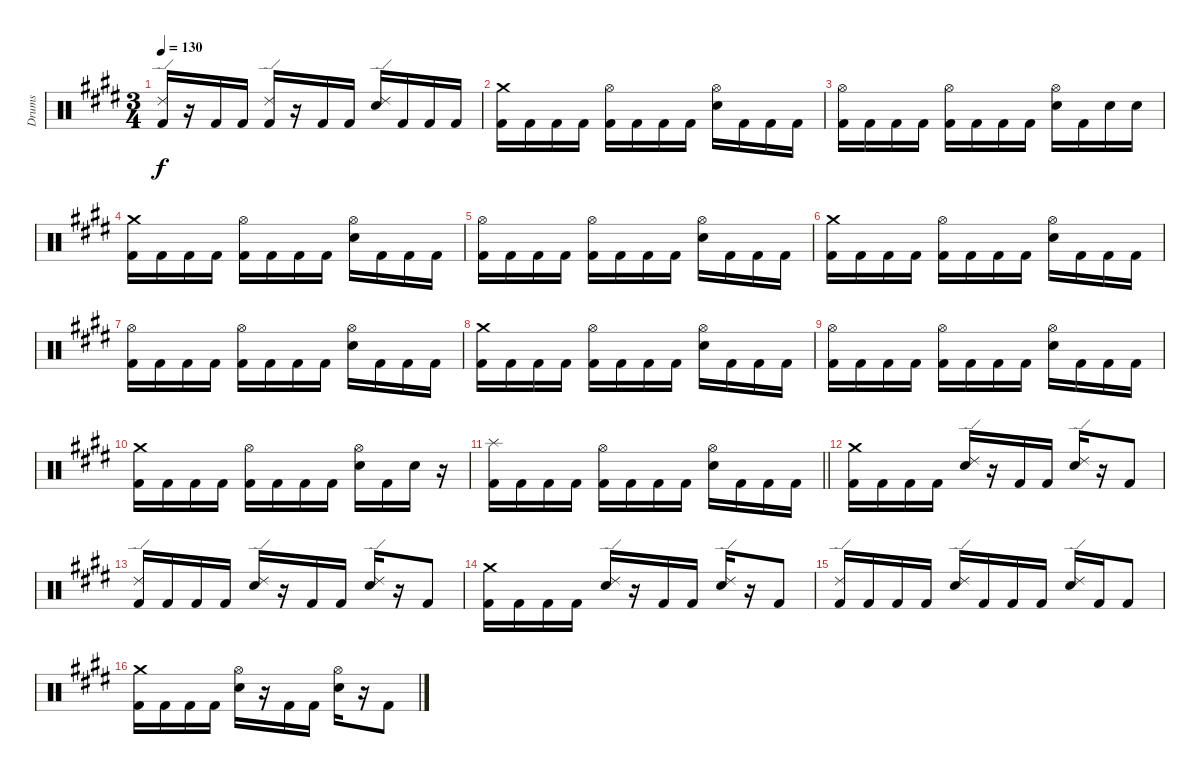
\track ("Drums" "Drums") {instrument percussion}
\staff {score}
\articulation defaults
\ts (3 4)
\tempo 130
\clef neutral
\ks e
("Kick (hit) 2" "Ride (edge) 2").16{dy f} r.16 "Kick (hit) 2".16 "Kick (hit) 2".16 ("Kick (hit) 2" "Ride (edge) 2").16 r.16 "Kick (hit) 2".16 "Kick (hit) 2".16 ("Electric Snare (hit)" "Ride (edge) 2").16 "Kick (hit) 2".16 "Kick (hit) 2".16 "Kick (hit) 2".16 |
("Kick (hit) 2" "Crash medium (hit)").16 "Kick (hit) 2".16 "Kick (hit) 2".16 "Kick (hit) 2".16 ("Kick (hit) 2" "Hi-Hat (open)").16 "Kick (hit) 2".16 "Kick (hit) 2".16 "Kick (hit) 2".16 ("Electric Snare (hit)" "Hi-Hat (open)").16 "Kick (hit) 2".16 "Kick (hit) 2".16 "Kick (hit) 2".16 |
("Kick (hit) 2" "Hi-Hat (open)").16 "Kick (hit) 2".16 "Kick (hit) 2".16 "Kick (hit) 2".16 ("Kick (hit) 2" "Hi-Hat (open)").16 "Kick (hit) 2".16 "Kick (hit) 2".16 "Kick (hit) 2".16 ("Electric Snare (hit)" "Hi-Hat (open)").16 "Kick (hit) 2".16 "Electric Snare (hit)".16 "Electric Snare (hit)".16 |
("Kick (hit) 2" "Crash medium (hit)").16 "Kick (hit) 2".16 "Kick (hit) 2".16 "Kick (hit) 2".16 ("Kick (hit) 2" "Hi-Hat (open)").16 "Kick (hit) 2".16 "Kick (hit) 2".16 "Kick (hit) 2".16 ("Electric Snare (hit)" "Hi-Hat (open)").16 "Kick (hit) 2".16 "Kick (hit) 2".16 "Kick (hit) 2".16 |
("Kick (hit) 2" "Hi-Hat (open)").16 "Kick (hit) 2".16 "Kick (hit) 2".16 "Kick (hit) 2".16 ("Kick (hit) 2" "Hi-Hat (open)").16 "Kick (hit) 2".16 "Kick (hit) 2".16 "Kick (hit) 2".16 ("Electric Snare (hit)" "Hi-Hat (open)").16 "Kick (hit) 2".16 "Kick (hit) 2".16 "Kick (hit) 2".16 |
("Kick (hit) 2" "Crash medium (hit)").16 "Kick (hit) 2".16 "Kick (hit) 2".16 "Kick (hit) 2".16 ("Kick (hit) 2" "Hi-Hat (open)").16 "Kick (hit) 2".16 "Kick (hit) 2".16 "Kick (hit) 2".16 ("Electric Snare (hit)" "Hi-Hat (open)").16 "Kick (hit) 2".16 "Kick (hit) 2".16 "Kick (hit) 2".16 |
("Kick (hit) 2" "Hi-Hat (open)").16 "Kick (hit) 2".16 "Kick (hit) 2".16 "Kick (hit) 2".16 ("Kick (hit) 2" "Hi-Hat (open)").16 "Kick (hit) 2".16 "Kick (hit) 2".16 "Kick (hit) 2".16 ("Electric Snare (hit)" "Hi-Hat (open)").16 "Kick (hit) 2".16 "Kick (hit) 2".16 "Kick (hit) 2".16 |
("Kick (hit) 2" "Crash medium (hit)").16 "Kick (hit) 2".16 "Kick (hit) 2".16 "Kick (hit) 2".16 ("Kick (hit) 2" "Hi-Hat (open)").16 "Kick (hit) 2".16 "Kick (hit) 2".16 "Kick (hit) 2".16 ("Electric Snare (hit)" "Hi-Hat (open)").16 "Kick (hit) 2".16 "Kick (hit) 2".16 "Kick (hit) 2".16 |
("Kick (hit) 2" "Hi-Hat (open)").16 "Kick (hit) 2".16 "Kick (hit) 2".16 "Kick (hit) 2".16 ("Kick (hit) 2" "Hi-Hat (open)").16 "Kick (hit) 2".16 "Kick (hit) 2".16 "Kick (hit) 2".16 ("Electric Snare (hit)" "Hi-Hat (open)").16 "Kick (hit) 2".16 "Kick (hit) 2".16 "Kick (hit) 2".16 |
("Kick (hit) 2" "Crash medium (hit)").16 "Kick (hit) 2".16 "Kick (hit) 2".16 "Kick (hit) 2".16 ("Kick (hit) 2" "Hi-Hat (open)").16 "Kick (hit) 2".16 "Kick (hit) 2".16 "Kick (hit) 2".16 ("Electric Snare (hit)" "Hi-Hat (open)").16 "Kick (hit) 2".16 "Electric Snare (hit)".16 r.16 |
\barLineRight lightlight
("Kick (hit) 2" "Splash (hit)").16 "Kick (hit) 2".16 "Kick (hit) 2".16 "Kick (hit) 2".16 ("Kick (hit) 2" "Hi-Hat (open)").16 "Kick (hit) 2".16 "Kick (hit) 2".16 "Kick (hit) 2".16 ("Electric Snare (hit)" "Hi-Hat (open)").16 "Kick (hit) 2".16 "Kick (hit) 2".16 "Kick (hit) 2".16 |
("Kick (hit) 2" "Crash medium (hit)").16 "Kick (hit) 2".16 "Kick (hit) 2".16 "Kick (hit) 2".16 ("Electric Snare (hit)" "Ride (edge) 2").16 r.16 "Kick (hit) 2".16 "Kick (hit) 2".16 ("Electric Snare (hit)" "Ride (edge) 2").16 r.16 "Kick (hit) 2".8 |
("Kick (hit) 2" "Ride (edge) 2").16 "Kick (hit) 2".16 "Kick (hit) 2".16 "Kick (hit) 2".16 ("Electric Snare (hit)" "Ride (edge) 2").16 r.16 "Kick (hit) 2".16 "Kick (hit) 2".16 ("Electric Snare (hit)" "Ride (edge) 2").16 r.16 "Kick (hit) 2".8 |
("Kick (hit) 2" "Crash medium (hit)").16 "Kick (hit) 2".16 "Kick (hit) 2".16 "Kick (hit) 2".16 ("Electric Snare (hit)" "Ride (edge) 2").16 r.16 "Kick (hit) 2".16 "Kick (hit) 2".16 ("Electric Snare (hit)" "Ride (edge) 2").16 r.16 "Kick (hit) 2".8 |
("Kick (hit) 2" "Ride (edge) 2").16 "Kick (hit) 2".16 "Kick (hit) 2".16 "Kick (hit) 2".16 ("Electric Snare (hit)" "Ride (edge) 2").16 "Kick (hit) 2".16 "Kick (hit) 2".16 "Kick (hit) 2".16 ("Electric Snare (hit)" "Ride (edge) 2").16 "Kick (hit) 2".16 "Kick (hit) 2".8 |
("Kick (hit) 2" "Crash medium (hit)").16 "Kick (hit) 2".16 "Kick (hit) 2".16 "Kick (hit) 2".16 ("Electric Snare (hit)" "Hi-Hat (open)").16 r.16 "Kick (hit) 2".16 "Kick (hit) 2".16 ("Electric Snare (hit)" "Hi-Hat (open)").16 r.16 "Kick (hit) 2".8
